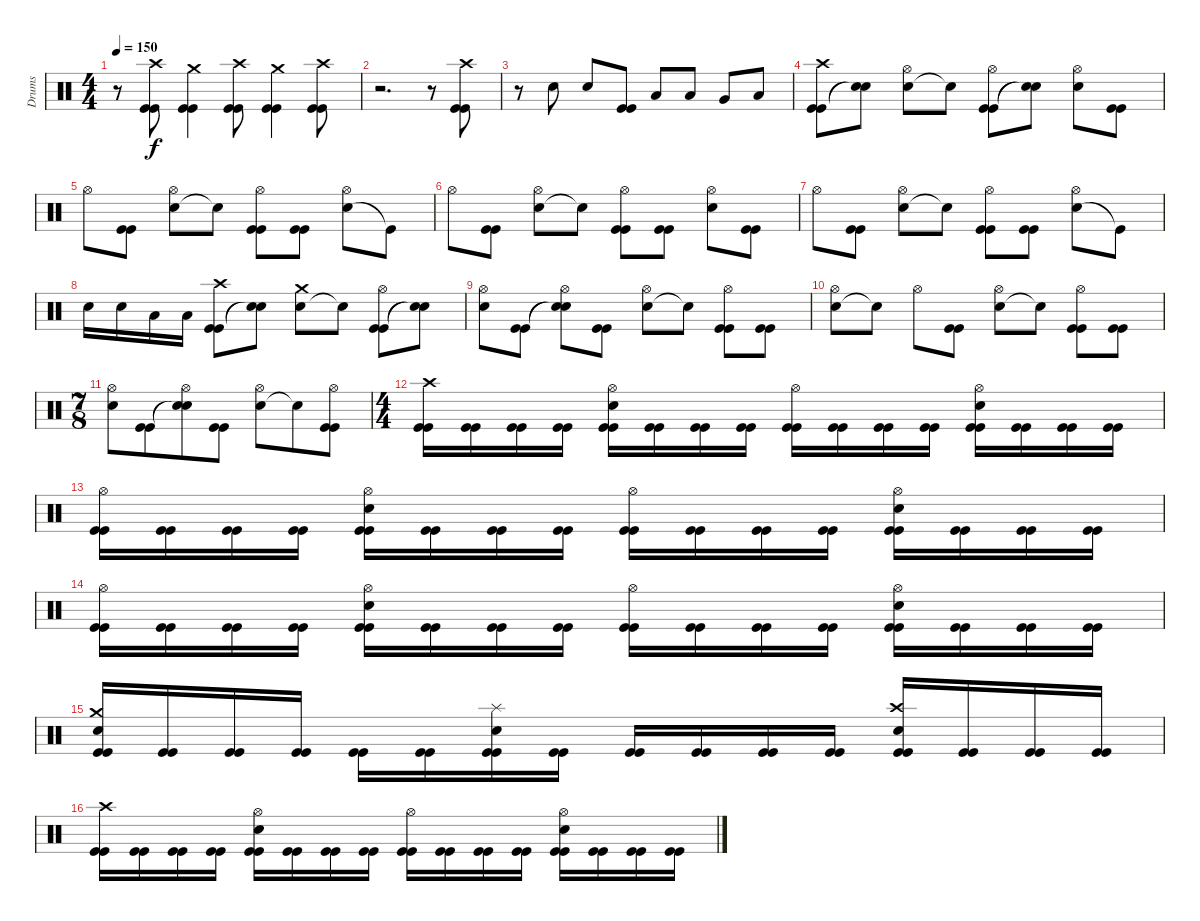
\track ("Drums" "Drums") {instrument percussion}
\staff {score}
\articulation defaults
\ts (4 4)
\tempo 150
\clef neutral
\ks c
r.8{dy f} ("Kick (hit)" "Kick (hit)" "Crash high (hit)").8 ("Kick (hit)" "Kick (hit)" "Crash medium (hit)").4 ("Kick (hit)" "Kick (hit)" "Crash high (hit)").8 ("Kick (hit)" "Kick (hit)" "Crash medium (hit)").4 ("Kick (hit)" "Kick (hit)" "Crash high (hit)").8 |
r.2{d} r.8 ("Kick (hit)" "Kick (hit)" "Crash high (hit)").8 |
r.8 "Snare (hit) 2".8 "Snare (hit) 2".8 ("Kick (hit)" "Kick (hit)").8 "Low Tom (hit)".8 "Low Tom (hit)".8 "Very Low Tom (hit)".8 "Low Floor Tom (hit)".8 |
("Kick (hit)" "Kick (hit)" "Crash high (hit)").8 ("Snare (hit)"{t} "Snare (hit)"{t}).8 ("Snare (hit) 2" "Hi-Hat (open)").8 "Snare (hit)"{t}.8 ("Kick (hit)" "Kick (hit)" "Hi-Hat (open)").8 ("Snare (hit)"{t} "Snare (hit)"{t}).8 ("Snare (hit) 2" "Hi-Hat (open)").8 ("Kick (hit)" "Kick (hit)").8 |
"Hi-Hat (open)".8 ("Kick (hit)" "Kick (hit)").8 ("Snare (hit) 2" "Hi-Hat (open)").8 "Snare (hit)"{t}.8 ("Kick (hit)" "Kick (hit)" "Hi-Hat (open)").8 ("Kick (hit)" "Kick (hit)").8 ("Snare (hit) 2" "Hi-Hat (open)").8 "Kick (hit)"{t}.8 |
"Hi-Hat (open)".8 ("Kick (hit)" "Kick (hit)").8 ("Snare (hit) 2" "Hi-Hat (open)").8 "Snare (hit)"{t}.8 ("Kick (hit)" "Kick (hit)" "Hi-Hat (open)").8 ("Kick (hit)" "Kick (hit)").8 ("Snare (hit) 2" "Hi-Hat (open)").8 ("Kick (hit)" "Kick (hit)").8 |
"Hi-Hat (open)".8 ("Kick (hit)" "Kick (hit)").8 ("Snare (hit) 2" "Hi-Hat (open)").8 "Snare (hit)"{t}.8 ("Kick (hit)" "Kick (hit)" "Hi-Hat (open)").8 ("Kick (hit)" "Kick (hit)").8 ("Snare (hit) 2" "Hi-Hat (open)").8 "Kick (hit)"{t}.8 |
"Snare (hit) 2".16 "Snare (hit) 2".16 "Low Tom (hit)".16 "Low Floor Tom (hit)".16 ("Kick (hit)" "Kick (hit)" "Crash high (hit)").8 ("Snare (hit)"{t} "Snare (hit)"{t}).8 ("Snare (hit) 2" "Crash medium (hit)").8 "Snare (hit)"{t}.8 ("Kick (hit)" "Kick (hit)" "Hi-Hat (open)").8 ("Snare (hit)"{t} "Snare (hit)"{t}).8 |
("Snare (hit) 2" "Hi-Hat (open)").8 ("Kick (hit)" "Kick (hit)").8 ("Snare (hit)"{t} "Snare (hit)"{t} "Hi-Hat (open)").8 ("Kick (hit)" "Kick (hit)").8 ("Snare (hit) 2" "Hi-Hat (open)").8 "Snare (hit)"{t}.8 ("Kick (hit)" "Kick (hit)" "Hi-Hat (open)").8 ("Kick (hit)" "Kick (hit)").8 |
("Snare (hit) 2" "Hi-Hat (open)").8 "Snare (hit)"{t}.8 "Hi-Hat (open)".8 ("Kick (hit)" "Kick (hit)").8 ("Snare (hit) 2" "Hi-Hat (open)").8 "Snare (hit)"{t}.8 ("Kick (hit)" "Kick (hit)" "Hi-Hat (open)").8 ("Kick (hit)" "Kick (hit)").8 |
\ts (7 8)
("Snare (hit) 2" "Hi-Hat (open)").8 ("Kick (hit)" "Kick (hit)").8 ("Snare (hit)"{t} "Snare (hit)"{t} "Hi-Hat (open)").8 ("Kick (hit)" "Kick (hit)").8 ("Snare (hit) 2" "Hi-Hat (open)").8 "Snare (hit)"{t}.8 ("Kick (hit)" "Kick (hit)" "Hi-Hat (open)").8 |
\ts (4 4)
("Kick (hit)" "Kick (hit)" "Crash high (hit)").16 ("Kick (hit)" "Kick (hit)").16 ("Kick (hit)" "Kick (hit)").16 ("Kick (hit)" "Kick (hit)").16 ("Kick (hit)" "Kick (hit)" "Snare (hit) 2" "Hi-Hat (open)").16 ("Kick (hit)" "Kick (hit)").16 ("Kick (hit)" "Kick (hit)").16 ("Kick (hit)" "Kick (hit)").16 ("Kick (hit)" "Kick (hit)" "Hi-Hat (open)").16 ("Kick (hit)" "Kick (hit)").16 ("Kick (hit)" "Kick (hit)").16 ("Kick (hit)" "Kick (hit)").16 ("Kick (hit)" "Kick (hit)" "Snare (hit) 2" "Hi-Hat (open)").16 ("Kick (hit)" "Kick (hit)").16 ("Kick (hit)" "Kick (hit)").16 ("Kick (hit)" "Kick (hit)").16 |
("Kick (hit)" "Kick (hit)" "Hi-Hat (open)").16 ("Kick (hit)" "Kick (hit)").16 ("Kick (hit)" "Kick (hit)").16 ("Kick (hit)" "Kick (hit)").16 ("Kick (hit)" "Kick (hit)" "Snare (hit) 2" "Hi-Hat (open)").16 ("Kick (hit)" "Kick (hit)").16 ("Kick (hit)" "Kick (hit)").16 ("Kick (hit)" "Kick (hit)").16 ("Kick (hit)" "Kick (hit)" "Hi-Hat (open)").16 ("Kick (hit)" "Kick (hit)").16 ("Kick (hit)" "Kick (hit)").16 ("Kick (hit)" "Kick (hit)").16 ("Kick (hit)" "Kick (hit)" "Snare (hit) 2" "Hi-Hat (open)").16 ("Kick (hit)" "Kick (hit)").16 ("Kick (hit)" "Kick (hit)").16 ("Kick (hit)" "Kick (hit)").16 |
("Kick (hit)" "Kick (hit)" "Hi-Hat (open)").16 ("Kick (hit)" "Kick (hit)").16 ("Kick (hit)" "Kick (hit)").16 ("Kick (hit)" "Kick (hit)").16 ("Kick (hit)" "Kick (hit)" "Snare (hit) 2" "Hi-Hat (open)").16 ("Kick (hit)" "Kick (hit)").16 ("Kick (hit)" "Kick (hit)").16 ("Kick (hit)" "Kick (hit)").16 ("Kick (hit)" "Kick (hit)" "Hi-Hat (open)").16 ("Kick (hit)" "Kick (hit)").16 ("Kick (hit)" "Kick (hit)").16 ("Kick (hit)" "Kick (hit)").16 ("Kick (hit)" "Kick (hit)" "Snare (hit) 2" "Hi-Hat (open)").16 ("Kick (hit)" "Kick (hit)").16 ("Kick (hit)" "Kick (hit)").16 ("Kick (hit)" "Kick (hit)").16 |
("Kick (hit)" "Kick (hit)" "Snare (hit) 2" "Crash medium (hit)").16 ("Kick (hit)" "Kick (hit)").16 ("Kick (hit)" "Kick (hit)").16 ("Kick (hit)" "Kick (hit)").16 ("Kick (hit)" "Kick (hit)").16 ("Kick (hit)" "Kick (hit)").16 ("Kick (hit)" "Kick (hit)" "Snare (hit) 2" "Splash (hit)").16 ("Kick (hit)" "Kick (hit)").16 ("Kick (hit)" "Kick (hit)").16 ("Kick (hit)" "Kick (hit)").16 ("Kick (hit)" "Kick (hit)").16 ("Kick (hit)" "Kick (hit)").16 ("Kick (hit)" "Kick (hit)" "Snare (hit) 2" "Crash high (hit)").16 ("Kick (hit)" "Kick (hit)").16 ("Kick (hit)" "Kick (hit)").16 ("Kick (hit)" "Kick (hit)").16 |
("Kick (hit)" "Kick (hit)" "Crash high (hit)").16 ("Kick (hit)" "Kick (hit)").16 ("Kick (hit)" "Kick (hit)").16 ("Kick (hit)" "Kick (hit)").16 ("Kick (hit)" "Kick (hit)" "Snare (hit) 2" "Hi-Hat (open)").16 ("Kick (hit)" "Kick (hit)").16 ("Kick (hit)" "Kick (hit)").16 ("Kick (hit)" "Kick (hit)").16 ("Kick (hit)" "Kick (hit)" "Hi-Hat (open)").16 ("Kick (hit)" "Kick (hit)").16 ("Kick (hit)" "Kick (hit)").16 ("Kick (hit)" "Kick (hit)").16 ("Kick (hit)" "Kick (hit)" "Snare (hit) 2" "Hi-Hat (open)").16 ("Kick (hit)" "Kick (hit)").16 ("Kick (hit)" "Kick (hit)").16 ("Kick (hit)" "Kick (hit)").16
